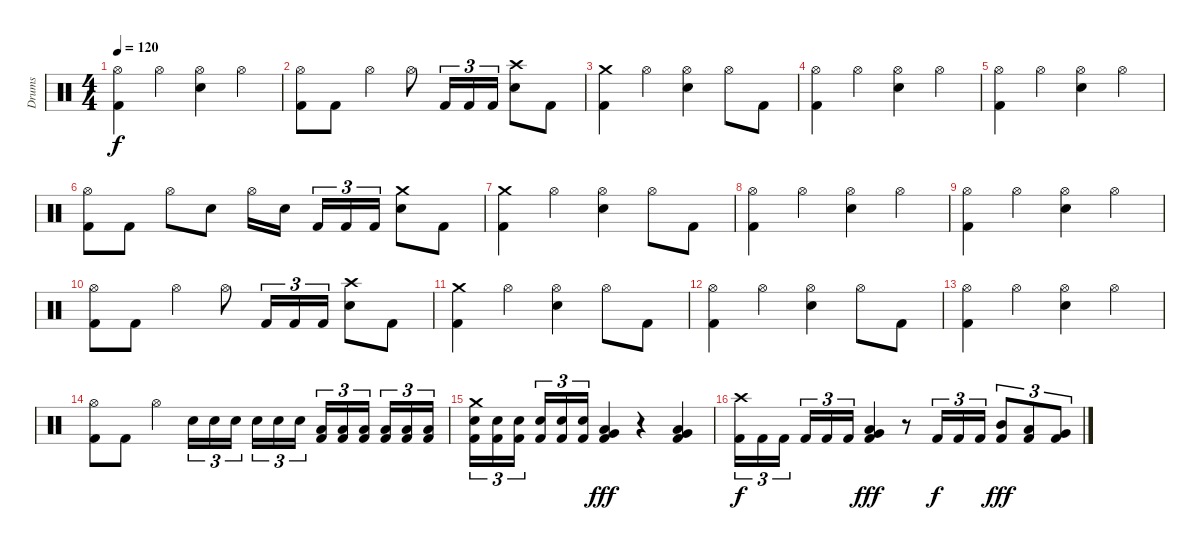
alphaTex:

\track ("Drums" "Drums") {instrument percussion}
\staff {score}
\articulation defaults
\ts (4 4)
\tempo 120
\clef neutral
\ks c
("Kick (hit) 2" "Hi-Hat (open)").4{dy f} "Hi-Hat (open)".4 ("Snare (hit) 2" "Hi-Hat (open)").4 "Hi-Hat (open)".4 |
("Kick (hit) 2" "Hi-Hat (open)").8 "Kick (hit) 2".8 "Hi-Hat (open)".4 "Hi-Hat (open)".8 "Kick (hit) 2".16{tu (3 2)} "Kick (hit) 2".16{tu (3 2)} "Kick (hit) 2".16{tu (3 2)} ("Snare (hit) 2" "Crash high (hit)").8 "Kick (hit) 2".8 |
("Kick (hit) 2" "Crash medium (hit)").4 "Hi-Hat (open)".4 ("Snare (hit) 2" "Hi-Hat (open)").4 "Hi-Hat (open)".8 "Kick (hit) 2".8 |
("Kick (hit) 2" "Hi-Hat (open)").4 "Hi-Hat (open)".4 ("Snare (hit) 2" "Hi-Hat (open)").4 "Hi-Hat (open)".4 |
("Kick (hit) 2" "Hi-Hat (open)").4 "Hi-Hat (open)".4 ("Snare (hit) 2" "Hi-Hat (open)").4 "Hi-Hat (open)".4 |
("Kick (hit) 2" "Hi-Hat (open)").8 "Kick (hit) 2".8 "Hi-Hat (open)".8 "Snare (hit) 2".8 "Hi-Hat (open)".16 "Snare (hit) 2".16 "Kick (hit) 2".16{tu (3 2)} "Kick (hit) 2".16{tu (3 2)} "Kick (hit) 2".16{tu (3 2)} ("Snare (hit) 2" "Crash medium (hit)").8 "Kick (hit) 2".8 |
("Kick (hit) 2" "Crash medium (hit)").4 "Hi-Hat (open)".4 ("Snare (hit) 2" "Hi-Hat (open)").4 "Hi-Hat (open)".8 "Kick (hit) 2".8 |
("Kick (hit) 2" "Hi-Hat (open)").4 "Hi-Hat (open)".4 ("Snare (hit) 2" "Hi-Hat (open)").4 "Hi-Hat (open)".4 |
("Kick (hit) 2" "Hi-Hat (open)").4 "Hi-Hat (open)".4 ("Snare (hit) 2" "Hi-Hat (open)").4 "Hi-Hat (open)".4 |
("Kick (hit) 2" "Hi-Hat (open)").8 "Kick (hit) 2".8 "Hi-Hat (open)".4 "Hi-Hat (open)".8 "Kick (hit) 2".16{tu (3 2)} "Kick (hit) 2".16{tu (3 2)} "Kick (hit) 2".16{tu (3 2)} ("Snare (hit) 2" "Crash high (hit)").8 "Kick (hit) 2".8 |
("Kick (hit) 2" "Crash medium (hit)").4 "Hi-Hat (open)".4 ("Snare (hit) 2" "Hi-Hat (open)").4 "Hi-Hat (open)".8 "Kick (hit) 2".8 |
("Kick (hit) 2" "Hi-Hat (open)").4 "Hi-Hat (open)".4 ("Snare (hit) 2" "Hi-Hat (open)").4 "Hi-Hat (open)".8 "Kick (hit) 2".8 |
("Kick (hit) 2" "Hi-Hat (open)").4 "Hi-Hat (open)".4 ("Snare (hit) 2" "Hi-Hat (open)").4 "Hi-Hat (open)".4 |
("Kick (hit) 2" "Hi-Hat (open)").8 "Kick (hit) 2".8 "Hi-Hat (open)".4 "Snare (hit) 2".16{tu (3 2)} "Snare (hit) 2".16{tu (3 2)} "Snare (hit) 2".16{tu (3 2)} "Snare (hit) 2".16{tu (3 2)} "Snare (hit) 2".16{tu (3 2)} "Snare (hit) 2".16{tu (3 2)} ("Kick (hit) 2" "Low Tom (hit)").16{tu (3 2)} ("Kick (hit) 2" "Low Tom (hit)").16{tu (3 2)} ("Kick (hit) 2" "Low Tom (hit)").16{tu (3 2)} ("Kick (hit) 2" "Low Tom (hit)").16{tu (3 2)} ("Kick (hit) 2" "Low Tom (hit)").16{tu (3 2)} ("Kick (hit) 2" "Low Tom (hit)").16{tu (3 2)} |
("Kick (hit) 2" "Snare (hit) 2" "Crash medium (hit)").16{tu (3 2)} ("Kick (hit) 2" "Snare (hit) 2").16{tu (3 2)} ("Kick (hit) 2" "Snare (hit) 2").16{tu (3 2)} ("Kick (hit) 2" "Snare (hit) 2").16{tu (3 2)} ("Kick (hit) 2" "Snare (hit) 2").16{tu (3 2)} ("Kick (hit) 2" "Snare (hit) 2").16{tu (3 2)} ("Kick (hit) 2" "Low Tom (hit)" "Very Low Tom (hit)").4{dy fff} r.4 ("Kick (hit) 2" "Low Tom (hit)" "Very Low Tom (hit)").4 |
("Kick (hit) 2" "Crash high (hit)").16{tu (3 2) dy f} "Kick (hit) 2".16{tu (3 2)} "Kick (hit) 2".16{tu (3 2)} "Kick (hit) 2".16{tu (3 2)} "Kick (hit) 2".16{tu (3 2)} "Kick (hit) 2".16{tu (3 2)} ("Kick (hit) 2" "Low Tom (hit)" "Very Low Tom (hit)").4{dy fff} r.8 "Kick (hit) 2".16{tu (3 2) dy f} "Kick (hit) 2".16{tu (3 2)} "Kick (hit) 2".16{tu (3 2)} ("Kick (hit) 2" "Mid Tom (hit)").8{tu (3 2) dy fff} ("Kick (hit) 2" "Low Tom (hit)").8{tu (3 2)} ("Kick (hit) 2" "Very Low Tom (hit)").8{tu (3 2)}
